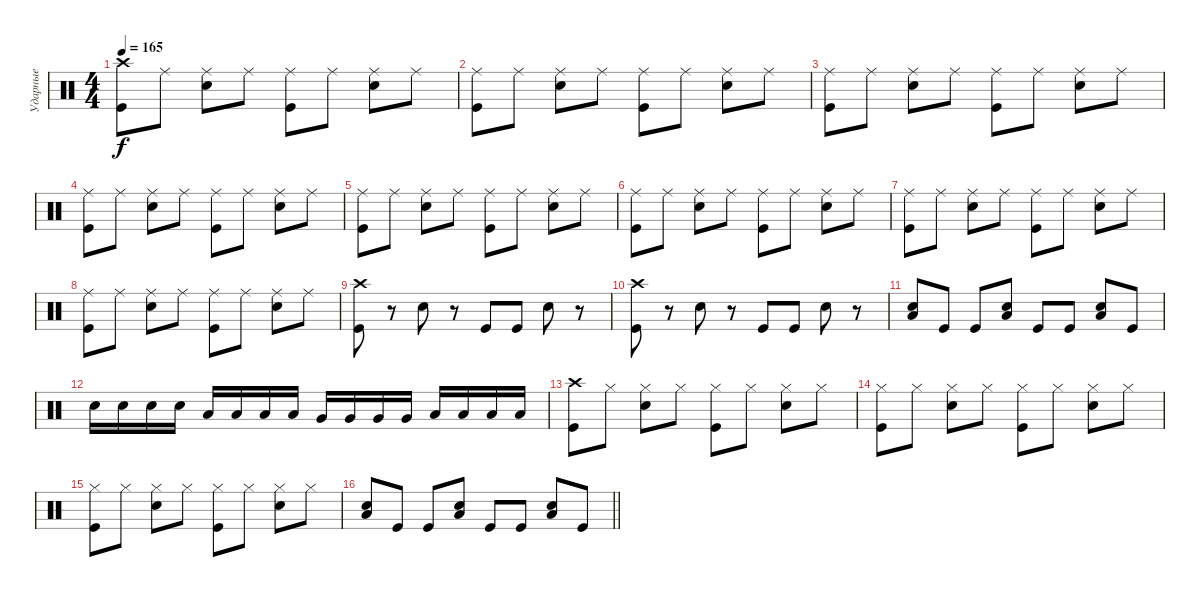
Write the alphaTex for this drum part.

\track ("Ударные" "Ударные") {instrument percussion}
\staff {score}
\articulation defaults
\ts (4 4)
\tempo 165
\clef neutral
\ks c
("Crash high (hit)" "Kick (hit)").8{dy f} "Ride (middle)".8 ("Ride (middle)" "Snare (hit) 2").8 "Ride (middle)".8 ("Ride (middle)" "Kick (hit)").8 "Ride (middle)".8 ("Ride (middle)" "Snare (hit) 2").8 "Ride (middle)".8 |
("Ride (middle)" "Kick (hit)").8 "Ride (middle)".8 ("Ride (middle)" "Snare (hit) 2").8 "Ride (middle)".8 ("Ride (middle)" "Kick (hit)").8 "Ride (middle)".8 ("Ride (middle)" "Snare (hit) 2").8 "Ride (middle)".8 |
("Ride (middle)" "Kick (hit)").8 "Ride (middle)".8 ("Ride (middle)" "Snare (hit) 2").8 "Ride (middle)".8 ("Ride (middle)" "Kick (hit)").8 "Ride (middle)".8 ("Ride (middle)" "Snare (hit) 2").8 "Ride (middle)".8 |
("Ride (middle)" "Kick (hit)").8 "Ride (middle)".8 ("Ride (middle)" "Snare (hit) 2").8 "Ride (middle)".8 ("Ride (middle)" "Kick (hit)").8 "Ride (middle)".8 ("Ride (middle)" "Snare (hit) 2").8 "Ride (middle)".8 |
("Ride (middle)" "Kick (hit)").8 "Ride (middle)".8 ("Ride (middle)" "Snare (hit) 2").8 "Ride (middle)".8 ("Ride (middle)" "Kick (hit)").8 "Ride (middle)".8 ("Ride (middle)" "Snare (hit) 2").8 "Ride (middle)".8 |
("Ride (middle)" "Kick (hit)").8 "Ride (middle)".8 ("Ride (middle)" "Snare (hit) 2").8 "Ride (middle)".8 ("Ride (middle)" "Kick (hit)").8 "Ride (middle)".8 ("Ride (middle)" "Snare (hit) 2").8 "Ride (middle)".8 |
("Ride (middle)" "Kick (hit)").8 "Ride (middle)".8 ("Ride (middle)" "Snare (hit) 2").8 "Ride (middle)".8 ("Ride (middle)" "Kick (hit)").8 "Ride (middle)".8 ("Ride (middle)" "Snare (hit) 2").8 "Ride (middle)".8 |
("Ride (middle)" "Kick (hit)").8 "Ride (middle)".8 ("Ride (middle)" "Snare (hit) 2").8 "Ride (middle)".8 ("Ride (middle)" "Kick (hit)").8 "Ride (middle)".8 ("Ride (middle)" "Snare (hit) 2").8 "Ride (middle)".8 |
("Crash high (hit)" "Kick (hit)").8 r.8 "Snare (hit) 2".8 r.8 "Kick (hit)".8 "Kick (hit)".8 "Snare (hit) 2".8 r.8 |
("Crash high (hit)" "Kick (hit)").8 r.8 "Snare (hit) 2".8 r.8 "Kick (hit)".8 "Kick (hit)".8 "Snare (hit) 2".8 r.8 |
("Snare (hit) 2" "Low Floor Tom (hit)").8 "Kick (hit)".8 "Kick (hit)".8 ("Snare (hit) 2" "Low Floor Tom (hit)").8 "Kick (hit)".8 "Kick (hit)".8 ("Snare (hit) 2" "Low Floor Tom (hit)").8 "Kick (hit)".8 |
"Snare (hit) 2".16 "Snare (hit) 2".16 "Snare (hit) 2".16 "Snare (hit) 2".16 "Low Tom (hit)".16 "Low Tom (hit)".16 "Low Tom (hit)".16 "Low Tom (hit)".16 "Very Low Tom (hit)".16 "Very Low Tom (hit)".16 "Very Low Tom (hit)".16 "Very Low Tom (hit)".16 "Low Floor Tom (hit)".16 "Low Floor Tom (hit)".16 "Low Floor Tom (hit)".16 "Low Floor Tom (hit)".16 |
("Crash high (hit)" "Kick (hit)").8 "Hi-Hat (closed)".8 ("Hi-Hat (closed)" "Snare (hit) 2").8 "Hi-Hat (closed)".8 ("Hi-Hat (closed)" "Kick (hit)").8 "Hi-Hat (closed)".8 ("Hi-Hat (closed)" "Snare (hit) 2").8 "Hi-Hat (closed)".8 |
("Hi-Hat (closed)" "Kick (hit)").8 "Hi-Hat (closed)".8 ("Hi-Hat (closed)" "Snare (hit) 2").8 "Hi-Hat (closed)".8 ("Hi-Hat (closed)" "Kick (hit)").8 "Hi-Hat (closed)".8 ("Hi-Hat (closed)" "Snare (hit) 2").8 "Hi-Hat (closed)".8 |
("Hi-Hat (closed)" "Kick (hit)").8 "Hi-Hat (closed)".8 ("Hi-Hat (closed)" "Snare (hit) 2").8 "Hi-Hat (closed)".8 ("Hi-Hat (closed)" "Kick (hit)").8 "Hi-Hat (closed)".8 ("Hi-Hat (closed)" "Snare (hit) 2").8 "Hi-Hat (closed)".8 |
\barLineRight lightlight
("Snare (hit) 2" "Low Floor Tom (hit)").8 "Kick (hit)".8 "Kick (hit)".8 ("Snare (hit) 2" "Low Floor Tom (hit)").8 "Kick (hit)".8 "Kick (hit)".8 ("Snare (hit) 2" "Low Floor Tom (hit)").8 "Kick (hit)".8
